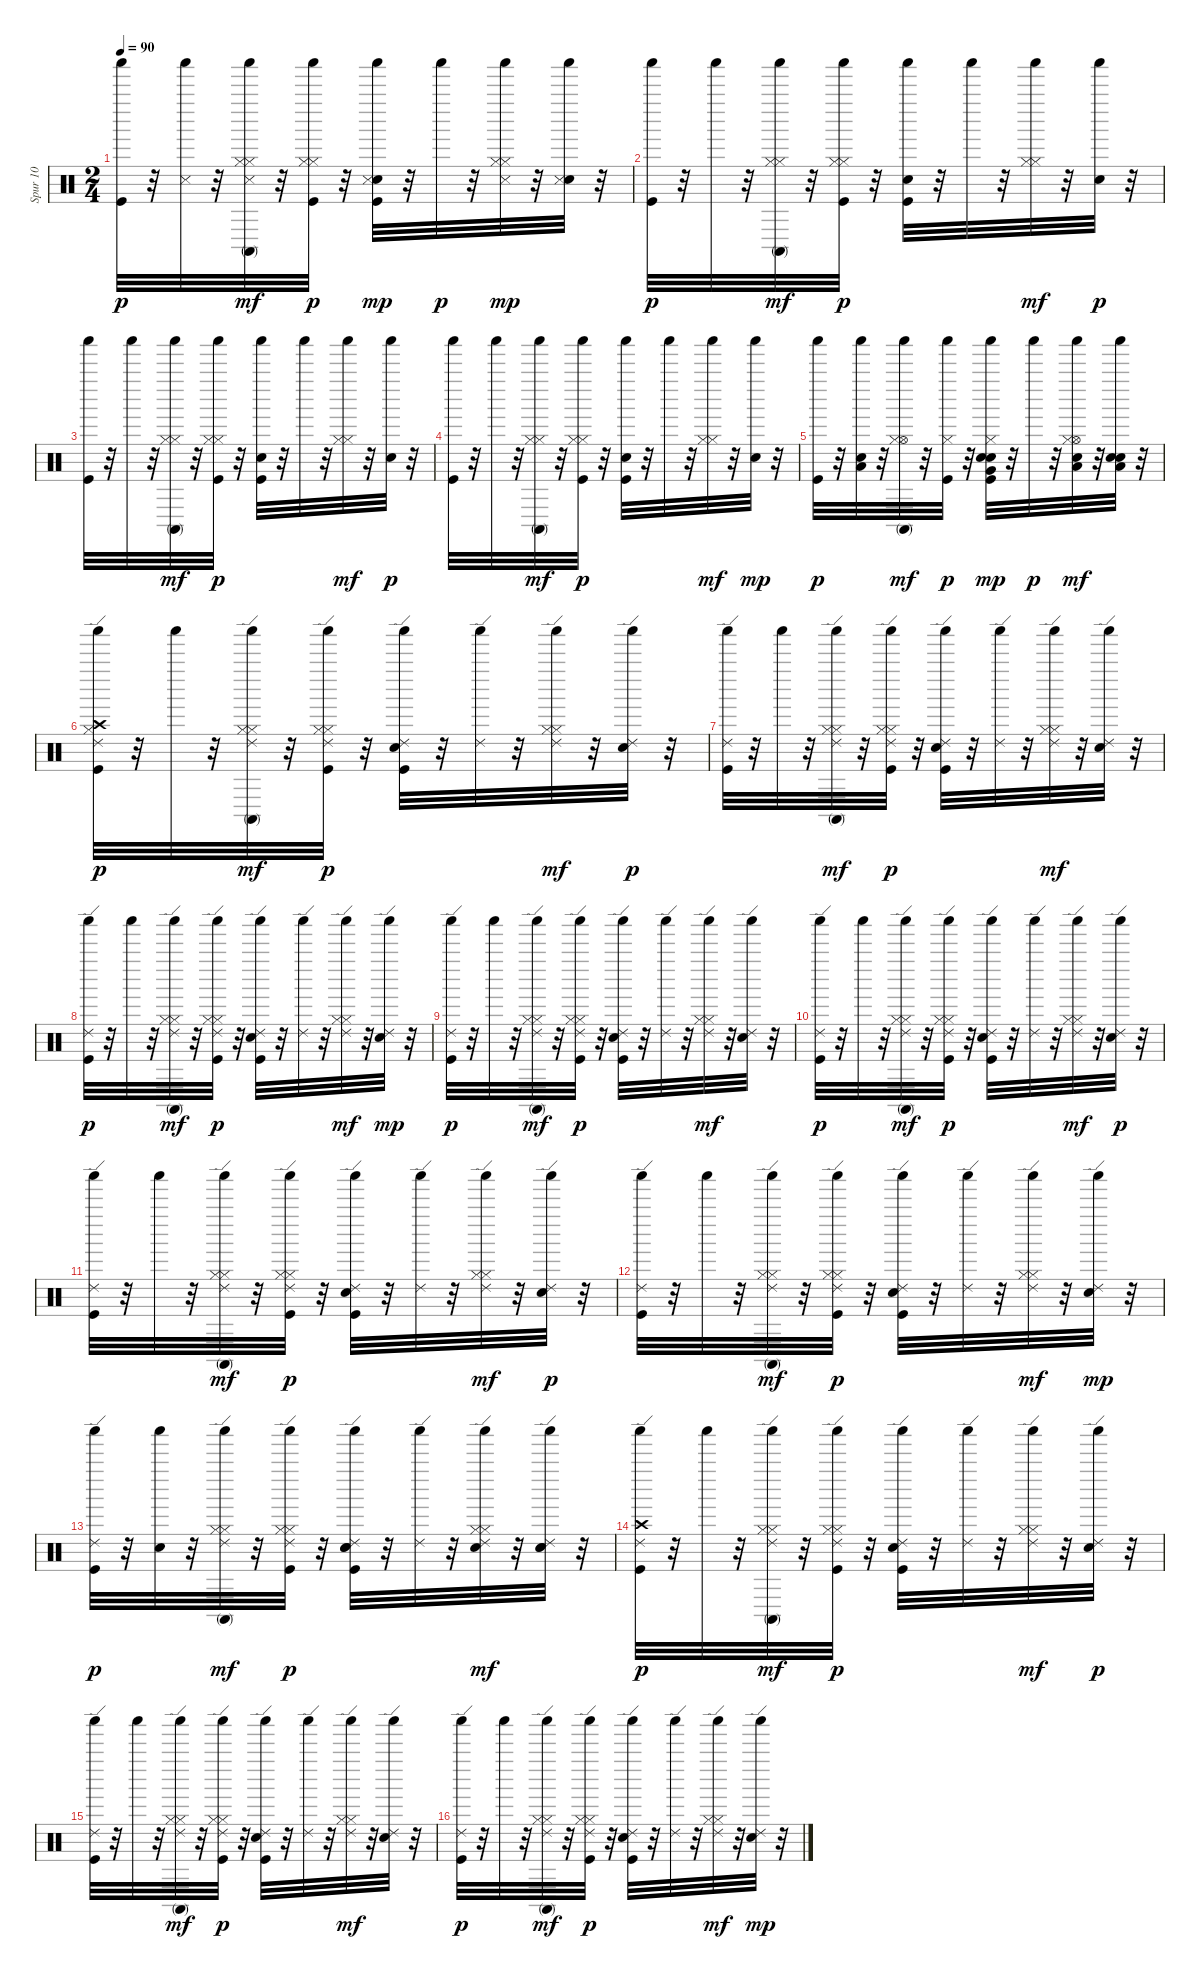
\track ("Spur 10" "Spur 10") {instrument percussion}
\staff {score}
\articulation defaults
\ts (2 4)
\tempo 90
\clef neutral
\ks c
("Shaker (hit)" "Kick (hit)").32{dy p} r.32 ("Shaker (hit)" "Snare (side stick) 3").32 r.32 ("Hi-Hat (closed)" "Shaker (hit)" "Conga high (mute)" "Hi-Hat (closed)" "Snare (side stick) 3").32{dy mf} r.32 ("Shaker (hit)" "Kick (hit)" "Hi-Hat (closed)" "Hi-Hat (closed)").32{dy p} r.32 ("Shaker (hit)" "Snare (hit) 2" "Kick (hit)" "Snare (side stick) 3").32{dy mp} r.32 "Shaker (hit)".32{dy p} r.32 ("Hi-Hat (closed)" "Shaker (hit)" "Hi-Hat (closed)" "Snare (side stick) 3").32{dy mp} r.32 ("Shaker (hit)" "Electric Snare (hit)" "Snare (side stick) 3").32 r.32 |
("Shaker (hit)" "Kick (hit)").32{dy p} r.32 "Shaker (hit)".32 r.32 ("Shaker (hit)" "Hi-Hat (closed)" "Conga high (mute)" "Hi-Hat (closed)").32{dy mf} r.32 ("Kick (hit)" "Shaker (hit)" "Hi-Hat (closed)" "Hi-Hat (closed)").32{dy p} r.32 ("Snare (hit) 2" "Shaker (hit)" "Kick (hit)").32 r.32 "Shaker (hit)".32 r.32 ("Hi-Hat (closed)" "Shaker (hit)" "Hi-Hat (closed)").32{dy mf} r.32 ("Electric Snare (hit)" "Shaker (hit)").32{dy p} r.32 |
("Shaker (hit)" "Kick (hit)").32 r.32 "Shaker (hit)".32 r.32 ("Conga high (mute)" "Shaker (hit)" "Hi-Hat (closed)" "Hi-Hat (closed)").32{dy mf} r.32 ("Kick (hit)" "Hi-Hat (closed)" "Shaker (hit)" "Hi-Hat (closed)").32{dy p} r.32 ("Snare (hit) 2" "Shaker (hit)" "Kick (hit)").32 r.32 "Shaker (hit)".32 r.32 ("Shaker (hit)" "Hi-Hat (closed)" "Hi-Hat (closed)").32{dy mf} r.32 ("Electric Snare (hit)" "Shaker (hit)").32{dy p} r.32 |
("Shaker (hit)" "Kick (hit)").32 r.32 "Shaker (hit)".32 r.32 ("Shaker (hit)" "Conga high (mute)" "Hi-Hat (closed)" "Hi-Hat (closed)").32{dy mf} r.32 ("Kick (hit)" "Hi-Hat (closed)" "Shaker (hit)" "Hi-Hat (closed)").32{dy p} r.32 ("Shaker (hit)" "Snare (hit) 2" "Kick (hit)").32 r.32 "Shaker (hit)".32 r.32 ("Hi-Hat (closed)" "Shaker (hit)" "Hi-Hat (closed)").32{dy mf} r.32 ("Shaker (hit)" "Electric Snare (hit)").32{dy mp} r.32 |
("Shaker (hit)" "Kick (hit)").32{dy p} r.32 ("Low Tom (hit)" "Shaker (hit)" "Electric Snare (hit)").32 r.32 ("Shaker (hit)" "Hi-Hat (open)" "Conga high (mute)" "Hi-Hat (closed)").32{dy mf} r.32 ("Kick (hit)" "Shaker (hit)" "Hi-Hat (closed)").32{dy p} r.32 ("Very Low Tom (hit)" "Snare (hit) 2" "Shaker (hit)" "Hi-Hat (closed)" "Kick (hit)" "Electric Snare (hit)").32{dy mp} r.32 "Shaker (hit)".32{dy p} r.32 ("Low Floor Tom (hit)" "Shaker (hit)" "Hi-Hat (open)" "Snare (hit) 2" "Hi-Hat (closed)").32{dy mf} r.32 ("Low Floor Tom (hit)" "Snare (hit) 2" "Shaker (hit)" "Electric Snare (hit)").32 r.32 |
("Ride (edge) 2" "Hi-Hat (closed)" "Shaker (hit)" "Kick (hit)" "Crash high (hit)").32{dy p} r.32 "Shaker (hit)".32 r.32 ("Ride (edge) 2" "Shaker (hit)" "Hi-Hat (closed)" "Conga high (mute)" "Hi-Hat (closed)").32{dy mf} r.32 ("Ride (edge) 2" "Hi-Hat (closed)" "Shaker (hit)" "Kick (hit)" "Hi-Hat (closed)").32{dy p} r.32 ("Ride (edge) 2" "Snare (hit) 2" "Shaker (hit)" "Kick (hit)").32 r.32 ("Ride (edge) 2" "Shaker (hit)").32 r.32 ("Ride (edge) 2" "Shaker (hit)" "Hi-Hat (closed)" "Hi-Hat (closed)").32{dy mf} r.32 ("Ride (edge) 2" "Electric Snare (hit)" "Shaker (hit)").32{dy p} r.32 |
("Ride (edge) 2" "Shaker (hit)" "Kick (hit)").32 r.32 "Shaker (hit)".32 r.32 ("Ride (edge) 2" "Shaker (hit)" "Hi-Hat (closed)" "Conga high (mute)" "Hi-Hat (closed)").32{dy mf} r.32 ("Ride (edge) 2" "Kick (hit)" "Hi-Hat (closed)" "Shaker (hit)" "Hi-Hat (closed)").32{dy p} r.32 ("Ride (edge) 2" "Shaker (hit)" "Snare (hit) 2" "Kick (hit)").32 r.32 ("Ride (edge) 2" "Shaker (hit)").32 r.32 ("Ride (edge) 2" "Hi-Hat (closed)" "Shaker (hit)" "Hi-Hat (closed)").32{dy mf} r.32 ("Ride (edge) 2" "Shaker (hit)" "Electric Snare (hit)").32 r.32 |
("Ride (edge) 2" "Shaker (hit)" "Kick (hit)").32{dy p} r.32 "Shaker (hit)".32 r.32 ("Ride (edge) 2" "Conga high (mute)" "Shaker (hit)" "Hi-Hat (closed)" "Hi-Hat (closed)").32{dy mf} r.32 ("Ride (edge) 2" "Shaker (hit)" "Kick (hit)" "Hi-Hat (closed)" "Hi-Hat (closed)").32{dy p} r.32 ("Ride (edge) 2" "Snare (hit) 2" "Shaker (hit)" "Kick (hit)").32 r.32 ("Ride (edge) 2" "Shaker (hit)").32 r.32 ("Ride (edge) 2" "Hi-Hat (closed)" "Shaker (hit)" "Hi-Hat (closed)").32{dy mf} r.32 ("Ride (edge) 2" "Shaker (hit)" "Electric Snare (hit)").32{dy mp} r.32 |
("Ride (edge) 2" "Shaker (hit)" "Kick (hit)").32{dy p} r.32 "Shaker (hit)".32 r.32 ("Ride (edge) 2" "Hi-Hat (closed)" "Shaker (hit)" "Conga high (mute)" "Hi-Hat (closed)").32{dy mf} r.32 ("Ride (edge) 2" "Shaker (hit)" "Kick (hit)" "Hi-Hat (closed)" "Hi-Hat (closed)").32{dy p} r.32 ("Ride (edge) 2" "Shaker (hit)" "Snare (hit) 2" "Kick (hit)").32 r.32 ("Ride (edge) 2" "Shaker (hit)").32 r.32 ("Ride (edge) 2" "Hi-Hat (closed)" "Shaker (hit)" "Hi-Hat (closed)").32{dy mf} r.32 ("Ride (edge) 2" "Shaker (hit)" "Electric Snare (hit)").32 r.32 |
("Ride (edge) 2" "Shaker (hit)" "Kick (hit)").32{dy p} r.32 "Shaker (hit)".32 r.32 ("Ride (edge) 2" "Shaker (hit)" "Hi-Hat (closed)" "Conga high (mute)" "Hi-Hat (closed)").32{dy mf} r.32 ("Ride (edge) 2" "Kick (hit)" "Shaker (hit)" "Hi-Hat (closed)" "Hi-Hat (closed)").32{dy p} r.32 ("Ride (edge) 2" "Snare (hit) 2" "Shaker (hit)" "Kick (hit)").32 r.32 ("Ride (edge) 2" "Shaker (hit)").32 r.32 ("Ride (edge) 2" "Hi-Hat (closed)" "Shaker (hit)" "Hi-Hat (closed)").32{dy mf} r.32 ("Ride (edge) 2" "Electric Snare (hit)" "Shaker (hit)").32{dy p} r.32 |
("Ride (edge) 2" "Shaker (hit)" "Kick (hit)").32 r.32 "Shaker (hit)".32 r.32 ("Ride (edge) 2" "Conga high (mute)" "Shaker (hit)" "Hi-Hat (closed)" "Hi-Hat (closed)").32{dy mf} r.32 ("Ride (edge) 2" "Kick (hit)" "Hi-Hat (closed)" "Shaker (hit)" "Hi-Hat (closed)").32{dy p} r.32 ("Ride (edge) 2" "Snare (hit) 2" "Shaker (hit)" "Kick (hit)").32 r.32 ("Ride (edge) 2" "Shaker (hit)").32 r.32 ("Ride (edge) 2" "Shaker (hit)" "Hi-Hat (closed)" "Hi-Hat (closed)").32{dy mf} r.32 ("Ride (edge) 2" "Electric Snare (hit)" "Shaker (hit)").32{dy p} r.32 |
("Ride (edge) 2" "Shaker (hit)" "Kick (hit)").32 r.32 "Shaker (hit)".32 r.32 ("Ride (edge) 2" "Shaker (hit)" "Conga high (mute)" "Hi-Hat (closed)" "Hi-Hat (closed)").32{dy mf} r.32 ("Ride (edge) 2" "Kick (hit)" "Hi-Hat (closed)" "Shaker (hit)" "Hi-Hat (closed)").32{dy p} r.32 ("Ride (edge) 2" "Shaker (hit)" "Snare (hit) 2" "Kick (hit)").32 r.32 ("Ride (edge) 2" "Shaker (hit)").32 r.32 ("Ride (edge) 2" "Hi-Hat (closed)" "Shaker (hit)" "Hi-Hat (closed)").32{dy mf} r.32 ("Ride (edge) 2" "Shaker (hit)" "Electric Snare (hit)").32{dy mp} r.32 |
("Ride (edge) 2" "Shaker (hit)" "Kick (hit)").32{dy p} r.32 ("Shaker (hit)" "Electric Snare (hit)").32 r.32 ("Ride (edge) 2" "Shaker (hit)" "Hi-Hat (closed)" "Conga high (mute)" "Hi-Hat (closed)").32{dy mf} r.32 ("Ride (edge) 2" "Kick (hit)" "Hi-Hat (closed)" "Shaker (hit)" "Hi-Hat (closed)").32{dy p} r.32 ("Ride (edge) 2" "Snare (hit) 2" "Shaker (hit)" "Kick (hit)" "Electric Snare (hit)").32 r.32 ("Ride (edge) 2" "Shaker (hit)").32 r.32 ("Ride (edge) 2" "Shaker (hit)" "Hi-Hat (closed)" "Snare (hit) 2" "Hi-Hat (closed)").32{dy mf} r.32 ("Ride (edge) 2" "Snare (hit) 2" "Shaker (hit)" "Electric Snare (hit)").32 r.32 |
("Ride (edge) 2" "Shaker (hit)" "Kick (hit)" "Crash high (hit)").32{dy p} r.32 "Shaker (hit)".32 r.32 ("Ride (edge) 2" "Shaker (hit)" "Hi-Hat (closed)" "Conga high (mute)" "Hi-Hat (closed)").32{dy mf} r.32 ("Ride (edge) 2" "Hi-Hat (closed)" "Shaker (hit)" "Kick (hit)" "Hi-Hat (closed)").32{dy p} r.32 ("Ride (edge) 2" "Snare (hit) 2" "Shaker (hit)" "Kick (hit)").32 r.32 ("Ride (edge) 2" "Shaker (hit)").32 r.32 ("Ride (edge) 2" "Shaker (hit)" "Hi-Hat (closed)" "Hi-Hat (closed)").32{dy mf} r.32 ("Ride (edge) 2" "Electric Snare (hit)" "Shaker (hit)").32{dy p} r.32 |
("Ride (edge) 2" "Shaker (hit)" "Kick (hit)").32 r.32 "Shaker (hit)".32 r.32 ("Ride (edge) 2" "Shaker (hit)" "Hi-Hat (closed)" "Conga high (mute)" "Hi-Hat (closed)").32{dy mf} r.32 ("Ride (edge) 2" "Kick (hit)" "Hi-Hat (closed)" "Shaker (hit)" "Hi-Hat (closed)").32{dy p} r.32 ("Ride (edge) 2" "Shaker (hit)" "Snare (hit) 2" "Kick (hit)").32 r.32 ("Ride (edge) 2" "Shaker (hit)").32 r.32 ("Ride (edge) 2" "Hi-Hat (closed)" "Shaker (hit)" "Hi-Hat (closed)").32{dy mf} r.32 ("Ride (edge) 2" "Shaker (hit)" "Electric Snare (hit)").32 r.32 |
("Ride (edge) 2" "Shaker (hit)" "Kick (hit)").32{dy p} r.32 "Shaker (hit)".32 r.32 ("Ride (edge) 2" "Conga high (mute)" "Shaker (hit)" "Hi-Hat (closed)" "Hi-Hat (closed)").32{dy mf} r.32 ("Ride (edge) 2" "Shaker (hit)" "Kick (hit)" "Hi-Hat (closed)" "Hi-Hat (closed)").32{dy p} r.32 ("Ride (edge) 2" "Snare (hit) 2" "Shaker (hit)" "Kick (hit)").32 r.32 ("Ride (edge) 2" "Shaker (hit)").32 r.32 ("Ride (edge) 2" "Hi-Hat (closed)" "Shaker (hit)" "Hi-Hat (closed)").32{dy mf} r.32 ("Ride (edge) 2" "Shaker (hit)" "Electric Snare (hit)").32{dy mp} r.32
